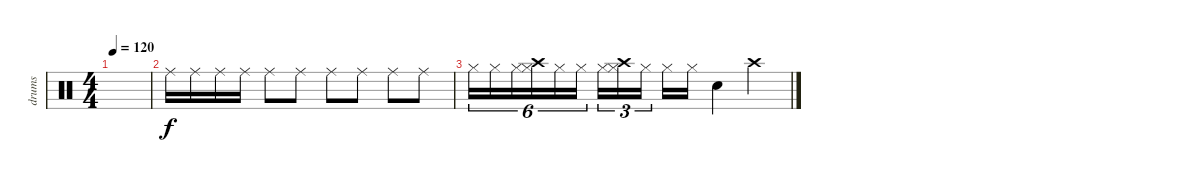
\track ("drums" "drums") {instrument percussion}
\staff {score}
\articulation defaults
\ts (4 4)
\tempo 120
\clef neutral
\ks c
|
"Ride (middle)".16 "Ride (middle)".16 "Ride (middle)".16 "Ride (middle)".16 "Ride (middle)".8 "Ride (middle)".8 "Ride (middle)".8 "Ride (middle)".8 "Ride (middle)".8 "Ride (middle)".8 |
"Hi-Hat (closed)".16{tu (6 4)} "Hi-Hat (closed)".16{tu (6 4)} "Hi-Hat (closed)".16{tu (6 4)} ("Hi-Hat (closed)" "Crash high (hit)").16{tu (6 4)} "Hi-Hat (closed)".16{tu (6 4)} "Hi-Hat (closed)".16{tu (6 4)} "Hi-Hat (closed)".16{tu (3 2)} ("Hi-Hat (closed)" "Crash high (hit)").16{tu (3 2)} "Hi-Hat (closed)".16{tu (3 2)} "Hi-Hat (closed)".16 "Hi-Hat (closed)".16 "Snare (hit) 2".4 "Crash high (hit)".4
